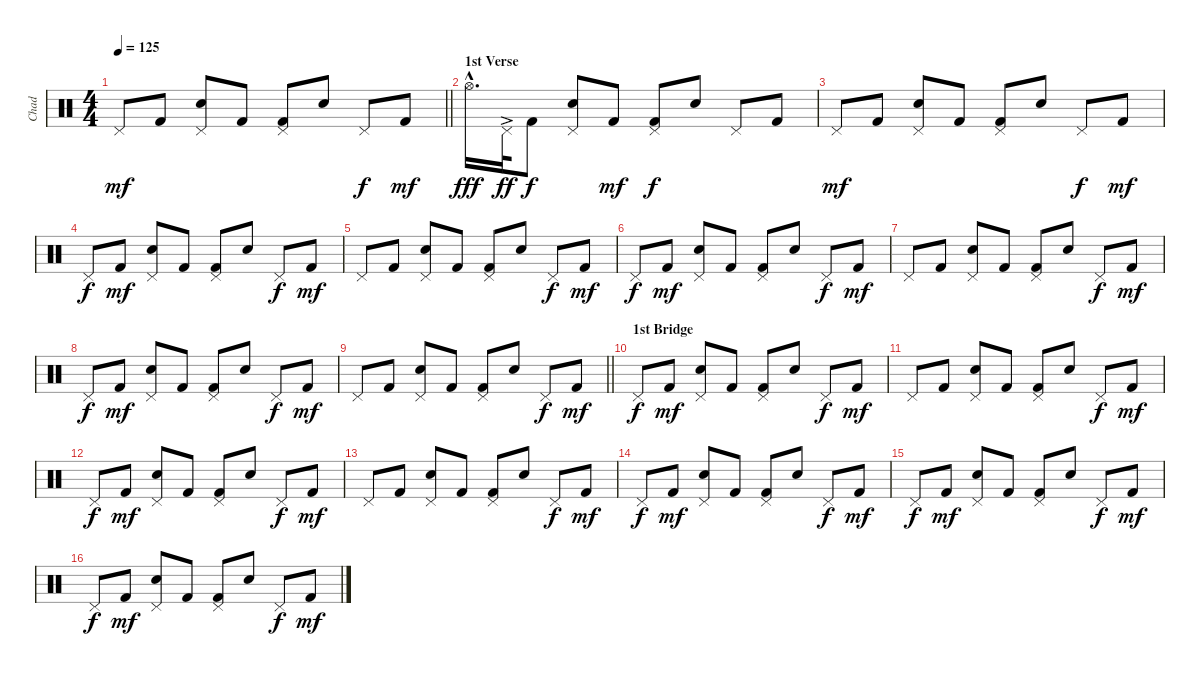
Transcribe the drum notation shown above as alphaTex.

\track ("Chad" "Chad") {instrument percussion}
\staff {score}
\articulation defaults
\ts (4 4)
\tempo 125
\clef neutral
\barLineRight lightlight
\ks c "Pedal Hi-Hat (hit)".8{dy mf} "Kick (hit) 2".8
("Electric Snare (hit)" "Pedal Hi-Hat (hit)").8 "Kick (hit) 2".8 ("Kick (hit) 2" "Pedal Hi-Hat (hit)").8 "Electric Snare (hit)".8 "Pedal Hi-Hat (hit)".8{dy f} "Kick (hit) 2".8{dy mf} |
\section ("" "1st Verse")
"Hi-Hat (open)"{hac}.16{d dy fff} "Pedal Hi-Hat (hit)"{ac}.32{dy ff} "Kick (hit) 2".8{dy f} ("Electric Snare (hit)" "Pedal Hi-Hat (hit)").8 "Kick (hit) 2".8{dy mf} ("Kick (hit) 2" "Pedal Hi-Hat (hit)").8{dy f} "Electric Snare (hit)".8 "Pedal Hi-Hat (hit)".8 "Kick (hit) 2".8 |
"Pedal Hi-Hat (hit)".8{dy mf} "Kick (hit) 2".8 ("Electric Snare (hit)" "Pedal Hi-Hat (hit)").8 "Kick (hit) 2".8 ("Kick (hit) 2" "Pedal Hi-Hat (hit)").8 "Electric Snare (hit)".8 "Pedal Hi-Hat (hit)".8{dy f} "Kick (hit) 2".8{dy mf} |
"Pedal Hi-Hat (hit)".8{dy f} "Kick (hit) 2".8{dy mf} ("Electric Snare (hit)" "Pedal Hi-Hat (hit)").8 "Kick (hit) 2".8 ("Kick (hit) 2" "Pedal Hi-Hat (hit)").8 "Electric Snare (hit)".8 "Pedal Hi-Hat (hit)".8{dy f} "Kick (hit) 2".8{dy mf} |
"Pedal Hi-Hat (hit)".8 "Kick (hit) 2".8 ("Electric Snare (hit)" "Pedal Hi-Hat (hit)").8 "Kick (hit) 2".8 ("Kick (hit) 2" "Pedal Hi-Hat (hit)").8 "Electric Snare (hit)".8 "Pedal Hi-Hat (hit)".8{dy f} "Kick (hit) 2".8{dy mf} |
"Pedal Hi-Hat (hit)".8{dy f} "Kick (hit) 2".8{dy mf} ("Electric Snare (hit)" "Pedal Hi-Hat (hit)").8 "Kick (hit) 2".8 ("Kick (hit) 2" "Pedal Hi-Hat (hit)").8 "Electric Snare (hit)".8 "Pedal Hi-Hat (hit)".8{dy f} "Kick (hit) 2".8{dy mf} |
"Pedal Hi-Hat (hit)".8 "Kick (hit) 2".8 ("Electric Snare (hit)" "Pedal Hi-Hat (hit)").8 "Kick (hit) 2".8 ("Kick (hit) 2" "Pedal Hi-Hat (hit)").8 "Electric Snare (hit)".8 "Pedal Hi-Hat (hit)".8{dy f} "Kick (hit) 2".8{dy mf} |
"Pedal Hi-Hat (hit)".8{dy f} "Kick (hit) 2".8{dy mf} ("Electric Snare (hit)" "Pedal Hi-Hat (hit)").8 "Kick (hit) 2".8 ("Kick (hit) 2" "Pedal Hi-Hat (hit)").8 "Electric Snare (hit)".8 "Pedal Hi-Hat (hit)".8{dy f} "Kick (hit) 2".8{dy mf} |
\barLineRight lightlight "Pedal Hi-Hat (hit)".8 "Kick (hit) 2".8
("Electric Snare (hit)" "Pedal Hi-Hat (hit)").8 "Kick (hit) 2".8 ("Kick (hit) 2" "Pedal Hi-Hat (hit)").8 "Electric Snare (hit)".8 "Pedal Hi-Hat (hit)".8{dy f} "Kick (hit) 2".8{dy mf} |
\section ("" "1st Bridge")
"Pedal Hi-Hat (hit)".8{dy f} "Kick (hit) 2".8{dy mf} ("Electric Snare (hit)" "Pedal Hi-Hat (hit)").8 "Kick (hit) 2".8 ("Kick (hit) 2" "Pedal Hi-Hat (hit)").8 "Electric Snare (hit)".8 "Pedal Hi-Hat (hit)".8{dy f} "Kick (hit) 2".8{dy mf} |
"Pedal Hi-Hat (hit)".8 "Kick (hit) 2".8 ("Electric Snare (hit)" "Pedal Hi-Hat (hit)").8 "Kick (hit) 2".8 ("Kick (hit) 2" "Pedal Hi-Hat (hit)").8 "Electric Snare (hit)".8 "Pedal Hi-Hat (hit)".8{dy f} "Kick (hit) 2".8{dy mf} |
"Pedal Hi-Hat (hit)".8{dy f} "Kick (hit) 2".8{dy mf} ("Electric Snare (hit)" "Pedal Hi-Hat (hit)").8 "Kick (hit) 2".8 ("Kick (hit) 2" "Pedal Hi-Hat (hit)").8 "Electric Snare (hit)".8 "Pedal Hi-Hat (hit)".8{dy f} "Kick (hit) 2".8{dy mf} |
"Pedal Hi-Hat (hit)".8 "Kick (hit) 2".8 ("Electric Snare (hit)" "Pedal Hi-Hat (hit)").8 "Kick (hit) 2".8 ("Kick (hit) 2" "Pedal Hi-Hat (hit)").8 "Electric Snare (hit)".8 "Pedal Hi-Hat (hit)".8{dy f} "Kick (hit) 2".8{dy mf} |
"Pedal Hi-Hat (hit)".8{dy f} "Kick (hit) 2".8{dy mf} ("Electric Snare (hit)" "Pedal Hi-Hat (hit)").8 "Kick (hit) 2".8 ("Kick (hit) 2" "Pedal Hi-Hat (hit)").8 "Electric Snare (hit)".8 "Pedal Hi-Hat (hit)".8{dy f} "Kick (hit) 2".8{dy mf} |
"Pedal Hi-Hat (hit)".8{dy f} "Kick (hit) 2".8{dy mf} ("Electric Snare (hit)" "Pedal Hi-Hat (hit)").8 "Kick (hit) 2".8 ("Kick (hit) 2" "Pedal Hi-Hat (hit)").8 "Electric Snare (hit)".8 "Pedal Hi-Hat (hit)".8{dy f} "Kick (hit) 2".8{dy mf} |
"Pedal Hi-Hat (hit)".8{dy f} "Kick (hit) 2".8{dy mf} ("Electric Snare (hit)" "Pedal Hi-Hat (hit)").8 "Kick (hit) 2".8 ("Kick (hit) 2" "Pedal Hi-Hat (hit)").8 "Electric Snare (hit)".8 "Pedal Hi-Hat (hit)".8{dy f} "Kick (hit) 2".8{dy mf}
